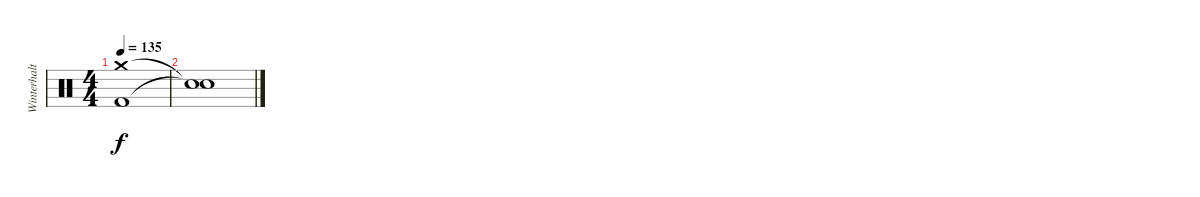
\track ("Winterhalter" "Winterhalt") {instrument percussion}
\staff {score}
\articulation defaults
\ts (4 4)
\tempo 135
\clef neutral
\ks c
("Crash medium (hit)" "Kick (hit) 2").1{dy f} |
("Snare (hit)"{t} "Snare (hit)"{t}).1
